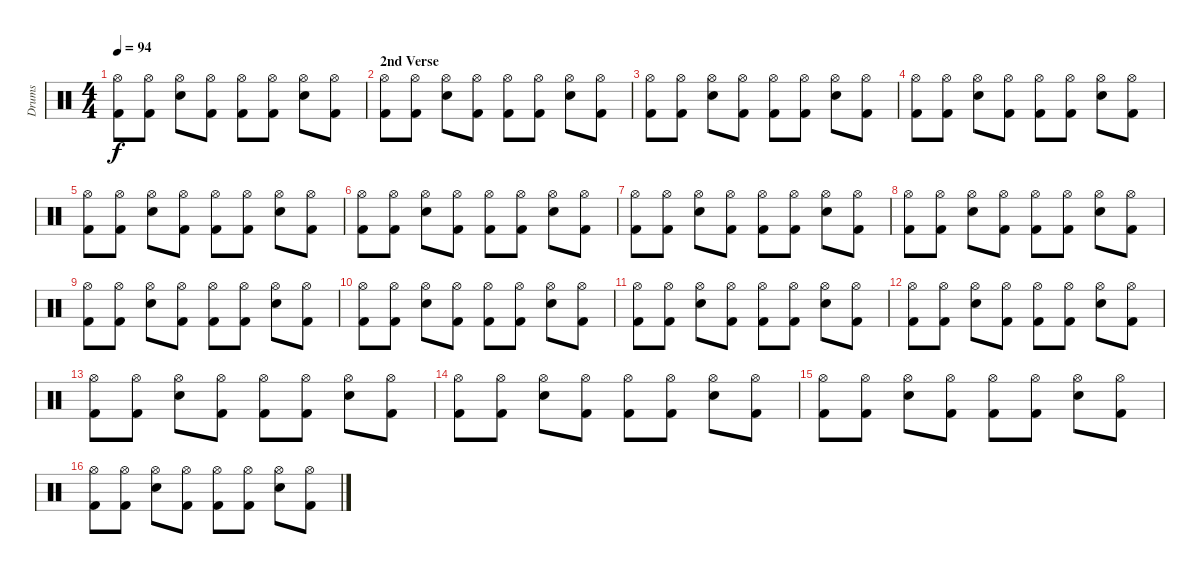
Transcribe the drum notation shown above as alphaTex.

\track ("Drums" "Drums") {instrument percussion}
\staff {score}
\articulation defaults
\ts (4 4)
\tempo 94
\clef neutral
\ks c
("Kick (hit) 2" "Hi-Hat (open)").8{dy f} ("Kick (hit) 2" "Hi-Hat (open)").8 ("Snare (hit) 2" "Hi-Hat (open)").8 ("Kick (hit) 2" "Hi-Hat (open)").8 ("Kick (hit) 2" "Hi-Hat (open)").8 ("Kick (hit) 2" "Hi-Hat (open)").8 ("Snare (hit) 2" "Hi-Hat (open)").8 ("Kick (hit) 2" "Hi-Hat (open)").8 |
\section ("" "2nd Verse")
("Kick (hit) 2" "Hi-Hat (open)").8 ("Kick (hit) 2" "Hi-Hat (open)").8 ("Snare (hit) 2" "Hi-Hat (open)").8 ("Kick (hit) 2" "Hi-Hat (open)").8 ("Kick (hit) 2" "Hi-Hat (open)").8 ("Kick (hit) 2" "Hi-Hat (open)").8 ("Snare (hit) 2" "Hi-Hat (open)").8 ("Kick (hit) 2" "Hi-Hat (open)").8 |
("Kick (hit) 2" "Hi-Hat (open)").8 ("Kick (hit) 2" "Hi-Hat (open)").8 ("Snare (hit) 2" "Hi-Hat (open)").8 ("Kick (hit) 2" "Hi-Hat (open)").8 ("Kick (hit) 2" "Hi-Hat (open)").8 ("Kick (hit) 2" "Hi-Hat (open)").8 ("Snare (hit) 2" "Hi-Hat (open)").8 ("Kick (hit) 2" "Hi-Hat (open)").8 |
("Kick (hit) 2" "Hi-Hat (open)").8 ("Kick (hit) 2" "Hi-Hat (open)").8 ("Snare (hit) 2" "Hi-Hat (open)").8 ("Kick (hit) 2" "Hi-Hat (open)").8 ("Kick (hit) 2" "Hi-Hat (open)").8 ("Kick (hit) 2" "Hi-Hat (open)").8 ("Snare (hit) 2" "Hi-Hat (open)").8 ("Kick (hit) 2" "Hi-Hat (open)").8 |
("Kick (hit) 2" "Hi-Hat (open)").8 ("Kick (hit) 2" "Hi-Hat (open)").8 ("Snare (hit) 2" "Hi-Hat (open)").8 ("Kick (hit) 2" "Hi-Hat (open)").8 ("Kick (hit) 2" "Hi-Hat (open)").8 ("Kick (hit) 2" "Hi-Hat (open)").8 ("Snare (hit) 2" "Hi-Hat (open)").8 ("Kick (hit) 2" "Hi-Hat (open)").8 |
("Kick (hit) 2" "Hi-Hat (open)").8 ("Kick (hit) 2" "Hi-Hat (open)").8 ("Snare (hit) 2" "Hi-Hat (open)").8 ("Kick (hit) 2" "Hi-Hat (open)").8 ("Kick (hit) 2" "Hi-Hat (open)").8 ("Kick (hit) 2" "Hi-Hat (open)").8 ("Snare (hit) 2" "Hi-Hat (open)").8 ("Kick (hit) 2" "Hi-Hat (open)").8 |
("Kick (hit) 2" "Hi-Hat (open)").8 ("Kick (hit) 2" "Hi-Hat (open)").8 ("Snare (hit) 2" "Hi-Hat (open)").8 ("Kick (hit) 2" "Hi-Hat (open)").8 ("Kick (hit) 2" "Hi-Hat (open)").8 ("Kick (hit) 2" "Hi-Hat (open)").8 ("Snare (hit) 2" "Hi-Hat (open)").8 ("Kick (hit) 2" "Hi-Hat (open)").8 |
("Kick (hit) 2" "Hi-Hat (open)").8 ("Kick (hit) 2" "Hi-Hat (open)").8 ("Snare (hit) 2" "Hi-Hat (open)").8 ("Kick (hit) 2" "Hi-Hat (open)").8 ("Kick (hit) 2" "Hi-Hat (open)").8 ("Kick (hit) 2" "Hi-Hat (open)").8 ("Snare (hit) 2" "Hi-Hat (open)").8 ("Kick (hit) 2" "Hi-Hat (open)").8 |
("Kick (hit) 2" "Hi-Hat (open)").8 ("Kick (hit) 2" "Hi-Hat (open)").8 ("Snare (hit) 2" "Hi-Hat (open)").8 ("Kick (hit) 2" "Hi-Hat (open)").8 ("Kick (hit) 2" "Hi-Hat (open)").8 ("Kick (hit) 2" "Hi-Hat (open)").8 ("Snare (hit) 2" "Hi-Hat (open)").8 ("Kick (hit) 2" "Hi-Hat (open)").8 |
("Kick (hit) 2" "Hi-Hat (open)").8 ("Kick (hit) 2" "Hi-Hat (open)").8 ("Snare (hit) 2" "Hi-Hat (open)").8 ("Kick (hit) 2" "Hi-Hat (open)").8 ("Kick (hit) 2" "Hi-Hat (open)").8 ("Kick (hit) 2" "Hi-Hat (open)").8 ("Snare (hit) 2" "Hi-Hat (open)").8 ("Kick (hit) 2" "Hi-Hat (open)").8 |
("Kick (hit) 2" "Hi-Hat (open)").8 ("Kick (hit) 2" "Hi-Hat (open)").8 ("Snare (hit) 2" "Hi-Hat (open)").8 ("Kick (hit) 2" "Hi-Hat (open)").8 ("Kick (hit) 2" "Hi-Hat (open)").8 ("Kick (hit) 2" "Hi-Hat (open)").8 ("Snare (hit) 2" "Hi-Hat (open)").8 ("Kick (hit) 2" "Hi-Hat (open)").8 |
("Kick (hit) 2" "Hi-Hat (open)").8 ("Kick (hit) 2" "Hi-Hat (open)").8 ("Snare (hit) 2" "Hi-Hat (open)").8 ("Kick (hit) 2" "Hi-Hat (open)").8 ("Kick (hit) 2" "Hi-Hat (open)").8 ("Kick (hit) 2" "Hi-Hat (open)").8 ("Snare (hit) 2" "Hi-Hat (open)").8 ("Kick (hit) 2" "Hi-Hat (open)").8 |
("Kick (hit) 2" "Hi-Hat (open)").8 ("Kick (hit) 2" "Hi-Hat (open)").8 ("Snare (hit) 2" "Hi-Hat (open)").8 ("Kick (hit) 2" "Hi-Hat (open)").8 ("Kick (hit) 2" "Hi-Hat (open)").8 ("Kick (hit) 2" "Hi-Hat (open)").8 ("Snare (hit) 2" "Hi-Hat (open)").8 ("Kick (hit) 2" "Hi-Hat (open)").8 |
("Kick (hit) 2" "Hi-Hat (open)").8 ("Kick (hit) 2" "Hi-Hat (open)").8 ("Snare (hit) 2" "Hi-Hat (open)").8 ("Kick (hit) 2" "Hi-Hat (open)").8 ("Kick (hit) 2" "Hi-Hat (open)").8 ("Kick (hit) 2" "Hi-Hat (open)").8 ("Snare (hit) 2" "Hi-Hat (open)").8 ("Kick (hit) 2" "Hi-Hat (open)").8 |
("Kick (hit) 2" "Hi-Hat (open)").8 ("Kick (hit) 2" "Hi-Hat (open)").8 ("Snare (hit) 2" "Hi-Hat (open)").8 ("Kick (hit) 2" "Hi-Hat (open)").8 ("Kick (hit) 2" "Hi-Hat (open)").8 ("Kick (hit) 2" "Hi-Hat (open)").8 ("Snare (hit) 2" "Hi-Hat (open)").8 ("Kick (hit) 2" "Hi-Hat (open)").8 |
("Kick (hit) 2" "Hi-Hat (open)").8 ("Kick (hit) 2" "Hi-Hat (open)").8 ("Snare (hit) 2" "Hi-Hat (open)").8 ("Kick (hit) 2" "Hi-Hat (open)").8 ("Kick (hit) 2" "Hi-Hat (open)").8 ("Kick (hit) 2" "Hi-Hat (open)").8 ("Snare (hit) 2" "Hi-Hat (open)").8 ("Kick (hit) 2" "Hi-Hat (open)").8
